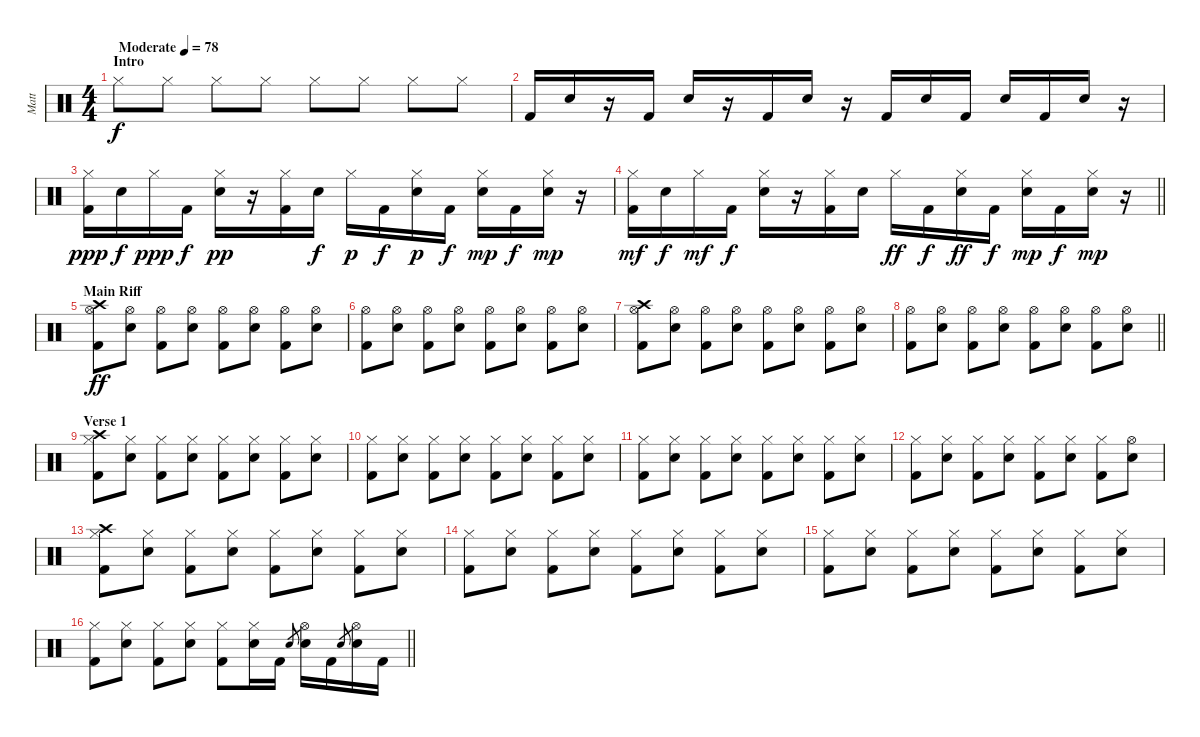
\track ("Matt" "Matt") {instrument percussion}
\staff {score}
\articulation defaults
\ts (4 4)
\section ("" "Intro")
\tempo (78 "Moderate")
\clef neutral
\ks c "Hi-Hat (closed)".8{dy f} "Hi-Hat (closed)".8 "Hi-Hat (closed)".8 "Hi-Hat (closed)".8 "Hi-Hat (closed)".8 "Hi-Hat (closed)".8 "Hi-Hat (closed)".8 "Hi-Hat (closed)".8
|
"Kick (hit) 2".16 "Snare (hit) 2".16 r.16 "Kick (hit) 2".16 "Snare (hit) 2".16 r.16 "Kick (hit) 2".16 "Snare (hit) 2".16 r.16 "Kick (hit) 2".16 "Snare (hit) 2".16 "Kick (hit) 2".16 "Snare (hit) 2".16 "Kick (hit) 2".16 "Snare (hit) 2".16 r.16 |
("Hi-Hat (closed)" "Kick (hit) 2").16{dy ppp} "Snare (hit) 2".16{dy f} "Hi-Hat (closed)".16{dy ppp} "Kick (hit) 2".16{dy f} ("Hi-Hat (closed)" "Snare (hit) 2").16{dy pp} r.16 ("Hi-Hat (closed)" "Kick (hit) 2").16 "Snare (hit) 2".16{dy f} "Hi-Hat (closed)".16{dy p} "Kick (hit) 2".16{dy f} ("Hi-Hat (closed)" "Snare (hit) 2").16{dy p} "Kick (hit) 2".16{dy f} ("Hi-Hat (closed)" "Snare (hit) 2").16{dy mp} "Kick (hit) 2".16{dy f} ("Hi-Hat (closed)" "Snare (hit) 2").16{dy mp} r.16 |
\barLineRight lightlight
("Hi-Hat (closed)" "Kick (hit) 2").16{dy mf} "Snare (hit) 2".16{dy f} "Hi-Hat (closed)".16{dy mf} "Kick (hit) 2".16{dy f} ("Hi-Hat (closed)" "Snare (hit) 2").16 r.16 ("Hi-Hat (closed)" "Kick (hit) 2").16 "Snare (hit) 2".16 "Hi-Hat (closed)".16{dy ff} "Kick (hit) 2".16{dy f} ("Hi-Hat (closed)" "Snare (hit) 2").16{dy ff} "Kick (hit) 2".16{dy f} ("Hi-Hat (closed)" "Snare (hit) 2").16{dy mp} "Kick (hit) 2".16{dy f} ("Hi-Hat (closed)" "Snare (hit) 2").16{dy mp} r.16 |
\section ("" "Main Riff")
("Hi-Hat (open)" "Kick (hit) 2" "Crash high (hit)").8{dy ff} ("Hi-Hat (open)" "Snare (hit) 2").8 ("Hi-Hat (open)" "Kick (hit) 2").8 ("Hi-Hat (open)" "Snare (hit) 2").8 ("Hi-Hat (open)" "Kick (hit) 2").8 ("Hi-Hat (open)" "Snare (hit) 2").8 ("Hi-Hat (open)" "Kick (hit) 2").8 ("Hi-Hat (open)" "Snare (hit) 2").8 |
("Hi-Hat (open)" "Kick (hit) 2").8 ("Hi-Hat (open)" "Snare (hit) 2").8 ("Hi-Hat (open)" "Kick (hit) 2").8 ("Hi-Hat (open)" "Snare (hit) 2").8 ("Hi-Hat (open)" "Kick (hit) 2").8 ("Hi-Hat (open)" "Snare (hit) 2").8 ("Hi-Hat (open)" "Kick (hit) 2").8 ("Hi-Hat (open)" "Snare (hit) 2").8 |
("Hi-Hat (open)" "Kick (hit) 2" "Crash high (hit)").8 ("Hi-Hat (open)" "Snare (hit) 2").8 ("Hi-Hat (open)" "Kick (hit) 2").8 ("Hi-Hat (open)" "Snare (hit) 2").8 ("Hi-Hat (open)" "Kick (hit) 2").8 ("Hi-Hat (open)" "Snare (hit) 2").8 ("Hi-Hat (open)" "Kick (hit) 2").8 ("Hi-Hat (open)" "Snare (hit) 2").8 |
\barLineRight lightlight
("Hi-Hat (open)" "Kick (hit) 2").8 ("Hi-Hat (open)" "Snare (hit) 2").8 ("Hi-Hat (open)" "Kick (hit) 2").8 ("Hi-Hat (open)" "Snare (hit) 2").8 ("Hi-Hat (open)" "Kick (hit) 2").8 ("Hi-Hat (open)" "Snare (hit) 2").8 ("Hi-Hat (open)" "Kick (hit) 2").8 ("Hi-Hat (open)" "Snare (hit) 2").8 |
\section ("" "Verse 1")
("Hi-Hat (closed)" "Kick (hit) 2" "Crash high (hit)").8 ("Hi-Hat (closed)" "Snare (hit) 2").8 ("Hi-Hat (closed)" "Kick (hit) 2").8 ("Hi-Hat (closed)" "Snare (hit) 2").8 ("Hi-Hat (closed)" "Kick (hit) 2").8 ("Hi-Hat (closed)" "Snare (hit) 2").8 ("Hi-Hat (closed)" "Kick (hit) 2").8 ("Hi-Hat (closed)" "Snare (hit) 2").8 |
("Hi-Hat (closed)" "Kick (hit) 2").8 ("Hi-Hat (closed)" "Snare (hit) 2").8 ("Hi-Hat (closed)" "Kick (hit) 2").8 ("Hi-Hat (closed)" "Snare (hit) 2").8 ("Hi-Hat (closed)" "Kick (hit) 2").8 ("Hi-Hat (closed)" "Snare (hit) 2").8 ("Hi-Hat (closed)" "Kick (hit) 2").8 ("Hi-Hat (closed)" "Snare (hit) 2").8 |
("Hi-Hat (closed)" "Kick (hit) 2").8 ("Hi-Hat (closed)" "Snare (hit) 2").8 ("Hi-Hat (closed)" "Kick (hit) 2").8 ("Hi-Hat (closed)" "Snare (hit) 2").8 ("Hi-Hat (closed)" "Kick (hit) 2").8 ("Hi-Hat (closed)" "Snare (hit) 2").8 ("Hi-Hat (closed)" "Kick (hit) 2").8 ("Hi-Hat (closed)" "Snare (hit) 2").8 |
("Hi-Hat (closed)" "Kick (hit) 2").8 ("Hi-Hat (closed)" "Snare (hit) 2").8 ("Hi-Hat (closed)" "Kick (hit) 2").8 ("Hi-Hat (closed)" "Snare (hit) 2").8 ("Hi-Hat (closed)" "Kick (hit) 2").8 ("Hi-Hat (closed)" "Snare (hit) 2").8 ("Hi-Hat (closed)" "Kick (hit) 2").8 ("Hi-Hat (open)" "Snare (hit) 2").8 |
("Hi-Hat (closed)" "Kick (hit) 2" "Crash high (hit)").8 ("Hi-Hat (closed)" "Snare (hit) 2").8 ("Hi-Hat (closed)" "Kick (hit) 2").8 ("Hi-Hat (closed)" "Snare (hit) 2").8 ("Hi-Hat (closed)" "Kick (hit) 2").8 ("Hi-Hat (closed)" "Snare (hit) 2").8 ("Hi-Hat (closed)" "Kick (hit) 2").8 ("Hi-Hat (closed)" "Snare (hit) 2").8 |
("Hi-Hat (closed)" "Kick (hit) 2").8 ("Hi-Hat (closed)" "Snare (hit) 2").8 ("Hi-Hat (closed)" "Kick (hit) 2").8 ("Hi-Hat (closed)" "Snare (hit) 2").8 ("Hi-Hat (closed)" "Kick (hit) 2").8 ("Hi-Hat (closed)" "Snare (hit) 2").8 ("Hi-Hat (closed)" "Kick (hit) 2").8 ("Hi-Hat (closed)" "Snare (hit) 2").8 |
("Hi-Hat (closed)" "Kick (hit) 2").8 ("Hi-Hat (closed)" "Snare (hit) 2").8 ("Hi-Hat (closed)" "Kick (hit) 2").8 ("Hi-Hat (closed)" "Snare (hit) 2").8 ("Hi-Hat (closed)" "Kick (hit) 2").8 ("Hi-Hat (closed)" "Snare (hit) 2").8 ("Hi-Hat (closed)" "Kick (hit) 2").8 ("Hi-Hat (closed)" "Snare (hit) 2").8 |
\barLineRight lightlight
("Hi-Hat (closed)" "Kick (hit) 2").8 ("Hi-Hat (closed)" "Snare (hit) 2").8 ("Hi-Hat (closed)" "Kick (hit) 2").8 ("Hi-Hat (closed)" "Snare (hit) 2").8 ("Hi-Hat (closed)" "Kick (hit) 2").8 ("Hi-Hat (closed)" "Snare (hit) 2").16 "Kick (hit) 2".16 "Snare (hit) 2".8{gr} ("Hi-Hat (open)" "Snare (hit) 2").16 "Kick (hit) 2".16 "Snare (hit) 2".8{gr} ("Hi-Hat (open)" "Snare (hit) 2").16 "Kick (hit) 2".16
